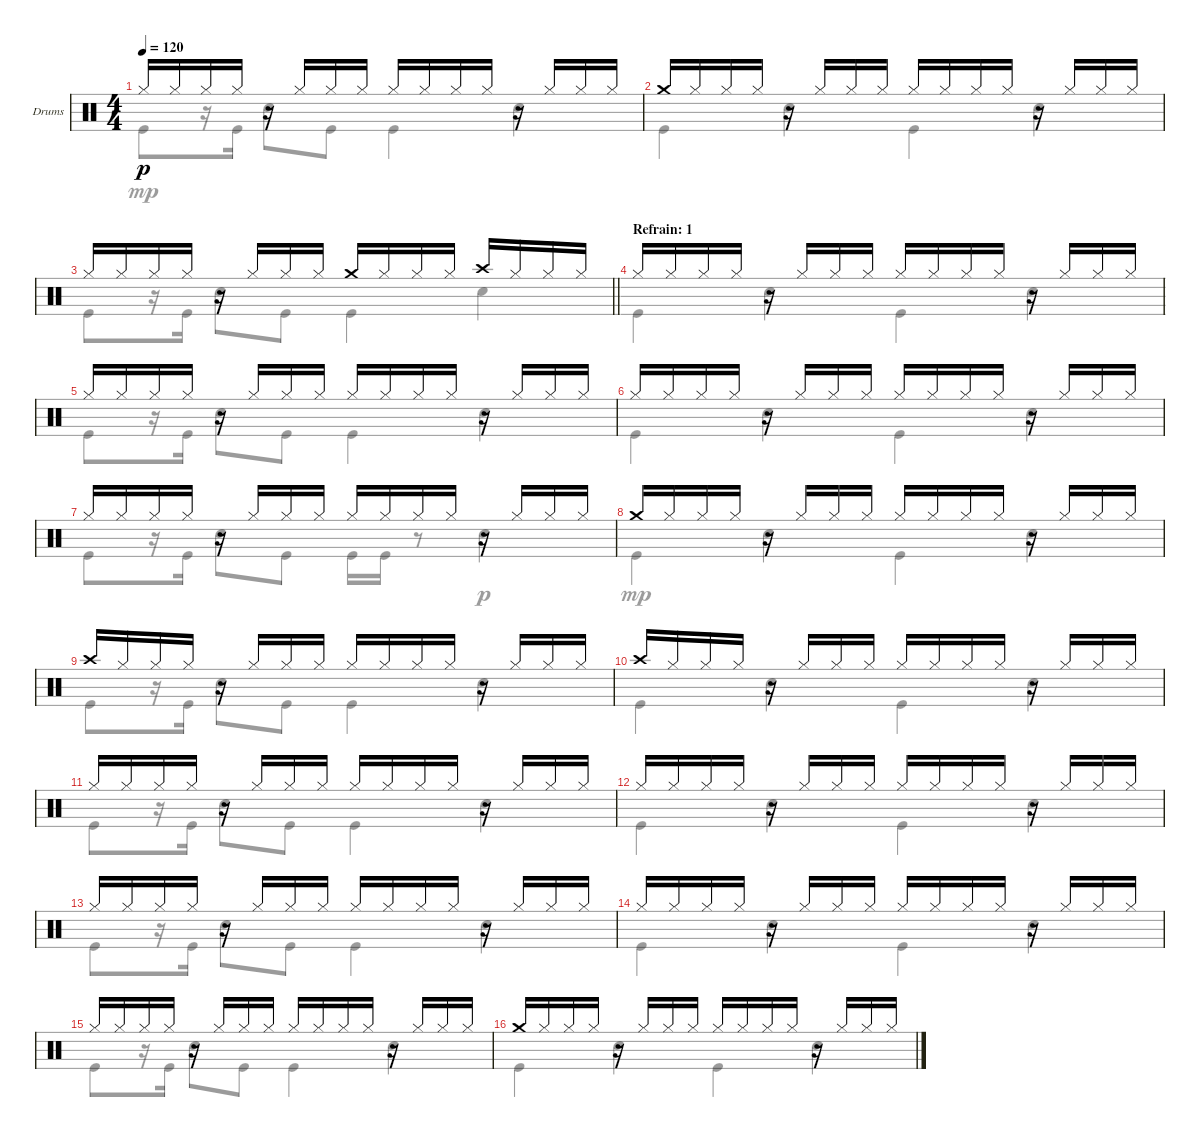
\bracketExtendMode groupsimilarinstruments
\firstSystemTrackNameOrientation horizontal
\otherSystemsTrackNameOrientation horizontal
\track ("Drumkit" "Drums") {instrument percussion}
\staff {score}
\articulation defaults
\voice
\ts (4 4)
\tempo 120
\clef neutral
\ks c "Hi-Hat (closed)".16{dy p} "Hi-Hat (closed)".16 "Hi-Hat (closed)".16 "Hi-Hat (closed)".16
r.16 "Hi-Hat (closed)".16 "Hi-Hat (closed)".16 "Hi-Hat (closed)".16 "Hi-Hat (closed)".16 "Hi-Hat (closed)".16 "Hi-Hat (closed)".16 "Hi-Hat (closed)".16 r.16 "Hi-Hat (closed)".16 "Hi-Hat (closed)".16 "Hi-Hat (closed)".16 |
"Crash medium (hit)".16 "Hi-Hat (closed)".16 "Hi-Hat (closed)".16 "Hi-Hat (closed)".16 r.16 "Hi-Hat (closed)".16 "Hi-Hat (closed)".16 "Hi-Hat (closed)".16 "Hi-Hat (closed)".16 "Hi-Hat (closed)".16 "Hi-Hat (closed)".16 "Hi-Hat (closed)".16 r.16 "Hi-Hat (closed)".16 "Hi-Hat (closed)".16 "Hi-Hat (closed)".16 |
\barLineRight lightlight "Hi-Hat (closed)".16 "Hi-Hat (closed)".16 "Hi-Hat (closed)".16 "Hi-Hat (closed)".16
r.16 "Hi-Hat (closed)".16 "Hi-Hat (closed)".16 "Hi-Hat (closed)".16 "Crash medium (hit)".16 "Hi-Hat (closed)".16 "Hi-Hat (closed)".16 "Hi-Hat (closed)".16 "Crash high (hit)".16 "Hi-Hat (closed)".16 "Hi-Hat (closed)".16 "Hi-Hat (closed)".16 |
\section ("" "Refrain: 1")
"Hi-Hat (closed)".16 "Hi-Hat (closed)".16 "Hi-Hat (closed)".16 "Hi-Hat (closed)".16 r.16 "Hi-Hat (closed)".16 "Hi-Hat (closed)".16 "Hi-Hat (closed)".16 "Hi-Hat (closed)".16 "Hi-Hat (closed)".16 "Hi-Hat (closed)".16 "Hi-Hat (closed)".16 r.16 "Hi-Hat (closed)".16 "Hi-Hat (closed)".16 "Hi-Hat (closed)".16 |
"Hi-Hat (closed)".16 "Hi-Hat (closed)".16 "Hi-Hat (closed)".16 "Hi-Hat (closed)".16 r.16 "Hi-Hat (closed)".16 "Hi-Hat (closed)".16 "Hi-Hat (closed)".16 "Hi-Hat (closed)".16 "Hi-Hat (closed)".16 "Hi-Hat (closed)".16 "Hi-Hat (closed)".16 r.16 "Hi-Hat (closed)".16 "Hi-Hat (closed)".16 "Hi-Hat (closed)".16 |
"Hi-Hat (closed)".16 "Hi-Hat (closed)".16 "Hi-Hat (closed)".16 "Hi-Hat (closed)".16 r.16 "Hi-Hat (closed)".16 "Hi-Hat (closed)".16 "Hi-Hat (closed)".16 "Hi-Hat (closed)".16 "Hi-Hat (closed)".16 "Hi-Hat (closed)".16 "Hi-Hat (closed)".16 r.16 "Hi-Hat (closed)".16 "Hi-Hat (closed)".16 "Hi-Hat (closed)".16 |
"Hi-Hat (closed)".16 "Hi-Hat (closed)".16 "Hi-Hat (closed)".16 "Hi-Hat (closed)".16 r.16 "Hi-Hat (closed)".16 "Hi-Hat (closed)".16 "Hi-Hat (closed)".16 "Hi-Hat (closed)".16 "Hi-Hat (closed)".16 "Hi-Hat (closed)".16 "Hi-Hat (closed)".16 r.16 "Hi-Hat (closed)".16 "Hi-Hat (closed)".16 "Hi-Hat (closed)".16 |
"Crash medium (hit)".16 "Hi-Hat (closed)".16 "Hi-Hat (closed)".16 "Hi-Hat (closed)".16 r.16 "Hi-Hat (closed)".16 "Hi-Hat (closed)".16 "Hi-Hat (closed)".16 "Hi-Hat (closed)".16 "Hi-Hat (closed)".16 "Hi-Hat (closed)".16 "Hi-Hat (closed)".16 r.16 "Hi-Hat (closed)".16 "Hi-Hat (closed)".16 "Hi-Hat (closed)".16 |
"Crash high (hit)".16 "Hi-Hat (closed)".16 "Hi-Hat (closed)".16 "Hi-Hat (closed)".16 r.16 "Hi-Hat (closed)".16 "Hi-Hat (closed)".16 "Hi-Hat (closed)".16 "Hi-Hat (closed)".16 "Hi-Hat (closed)".16 "Hi-Hat (closed)".16 "Hi-Hat (closed)".16 r.16 "Hi-Hat (closed)".16 "Hi-Hat (closed)".16 "Hi-Hat (closed)".16 |
"Crash high (hit)".16 "Hi-Hat (closed)".16 "Hi-Hat (closed)".16 "Hi-Hat (closed)".16 r.16 "Hi-Hat (closed)".16 "Hi-Hat (closed)".16 "Hi-Hat (closed)".16 "Hi-Hat (closed)".16 "Hi-Hat (closed)".16 "Hi-Hat (closed)".16 "Hi-Hat (closed)".16 r.16 "Hi-Hat (closed)".16 "Hi-Hat (closed)".16 "Hi-Hat (closed)".16 |
"Hi-Hat (closed)".16 "Hi-Hat (closed)".16 "Hi-Hat (closed)".16 "Hi-Hat (closed)".16 r.16 "Hi-Hat (closed)".16 "Hi-Hat (closed)".16 "Hi-Hat (closed)".16 "Hi-Hat (closed)".16 "Hi-Hat (closed)".16 "Hi-Hat (closed)".16 "Hi-Hat (closed)".16 r.16 "Hi-Hat (closed)".16 "Hi-Hat (closed)".16 "Hi-Hat (closed)".16 |
"Hi-Hat (closed)".16 "Hi-Hat (closed)".16 "Hi-Hat (closed)".16 "Hi-Hat (closed)".16 r.16 "Hi-Hat (closed)".16 "Hi-Hat (closed)".16 "Hi-Hat (closed)".16 "Hi-Hat (closed)".16 "Hi-Hat (closed)".16 "Hi-Hat (closed)".16 "Hi-Hat (closed)".16 r.16 "Hi-Hat (closed)".16 "Hi-Hat (closed)".16 "Hi-Hat (closed)".16 |
"Hi-Hat (closed)".16 "Hi-Hat (closed)".16 "Hi-Hat (closed)".16 "Hi-Hat (closed)".16 r.16 "Hi-Hat (closed)".16 "Hi-Hat (closed)".16 "Hi-Hat (closed)".16 "Hi-Hat (closed)".16 "Hi-Hat (closed)".16 "Hi-Hat (closed)".16 "Hi-Hat (closed)".16 r.16 "Hi-Hat (closed)".16 "Hi-Hat (closed)".16 "Hi-Hat (closed)".16 |
"Hi-Hat (closed)".16 "Hi-Hat (closed)".16 "Hi-Hat (closed)".16 "Hi-Hat (closed)".16 r.16 "Hi-Hat (closed)".16 "Hi-Hat (closed)".16 "Hi-Hat (closed)".16 "Hi-Hat (closed)".16 "Hi-Hat (closed)".16 "Hi-Hat (closed)".16 "Hi-Hat (closed)".16 r.16 "Hi-Hat (closed)".16 "Hi-Hat (closed)".16 "Hi-Hat (closed)".16 |
"Hi-Hat (closed)".16 "Hi-Hat (closed)".16 "Hi-Hat (closed)".16 "Hi-Hat (closed)".16 r.16 "Hi-Hat (closed)".16 "Hi-Hat (closed)".16 "Hi-Hat (closed)".16 "Hi-Hat (closed)".16 "Hi-Hat (closed)".16 "Hi-Hat (closed)".16 "Hi-Hat (closed)".16 r.16 "Hi-Hat (closed)".16 "Hi-Hat (closed)".16 "Hi-Hat (closed)".16 |
"Crash medium (hit)".16 "Hi-Hat (closed)".16 "Hi-Hat (closed)".16 "Hi-Hat (closed)".16 r.16 "Hi-Hat (closed)".16 "Hi-Hat (closed)".16 "Hi-Hat (closed)".16 "Hi-Hat (closed)".16 "Hi-Hat (closed)".16 "Hi-Hat (closed)".16 "Hi-Hat (closed)".16 r.16 "Hi-Hat (closed)".16 "Hi-Hat (closed)".16 "Hi-Hat (closed)".16
\voice
\clef neutral
\ottava regular
\simile none
\ks c "Kick (hit)".8{dy mp}
r.16 "Kick (hit)".16 "Snare (hit) 2".8 "Kick (hit)".8 "Kick (hit)".4 "Snare (hit) 2".4 |
"Kick (hit)".4 "Snare (hit) 2".4 "Kick (hit)".4 "Snare (hit) 2".4 |
\barLineRight lightlight "Kick (hit)".8
r.16 "Kick (hit)".16 "Snare (hit) 2".8 "Kick (hit)".8 "Kick (hit)".4 "Snare (hit) 2".4 |
"Kick (hit)".4 "Snare (hit) 2".4 "Kick (hit)".4 "Snare (hit) 2".4 |
"Kick (hit)".8 r.16 "Kick (hit)".16 "Snare (hit) 2".8 "Kick (hit)".8 "Kick (hit)".4 "Snare (hit) 2".4 |
"Kick (hit)".4 "Snare (hit) 2".4 "Kick (hit)".4 "Snare (hit) 2".4 |
"Kick (hit)".8 r.16 "Kick (hit)".16 "Snare (hit) 2".8 "Kick (hit)".8 "Kick (hit)".16 "Kick (hit)".16 r.8 "Snare (hit) 2".4{dy p} |
"Kick (hit)".4{dy mp} "Snare (hit) 2".4 "Kick (hit)".4 "Snare (hit) 2".4 |
"Kick (hit)".8 r.16 "Kick (hit)".16 "Snare (hit) 2".8 "Kick (hit)".8 "Kick (hit)".4 "Snare (hit) 2".4 |
"Kick (hit)".4 "Snare (hit) 2".4 "Kick (hit)".4 "Snare (hit) 2".4 |
"Kick (hit)".8 r.16 "Kick (hit)".16 "Snare (hit) 2".8 "Kick (hit)".8 "Kick (hit)".4 "Snare (hit) 2".4 |
"Kick (hit)".4 "Snare (hit) 2".4 "Kick (hit)".4 "Snare (hit) 2".4 |
"Kick (hit)".8 r.16 "Kick (hit)".16 "Snare (hit) 2".8 "Kick (hit)".8 "Kick (hit)".4 "Snare (hit) 2".4 |
"Kick (hit)".4 "Snare (hit) 2".4 "Kick (hit)".4 "Snare (hit) 2".4 |
"Kick (hit)".8 r.16 "Kick (hit)".16 "Snare (hit) 2".8 "Kick (hit)".8 "Kick (hit)".4 "Snare (hit) 2".4 |
"Kick (hit)".4 "Snare (hit) 2".4 "Kick (hit)".4 "Snare (hit) 2".4
